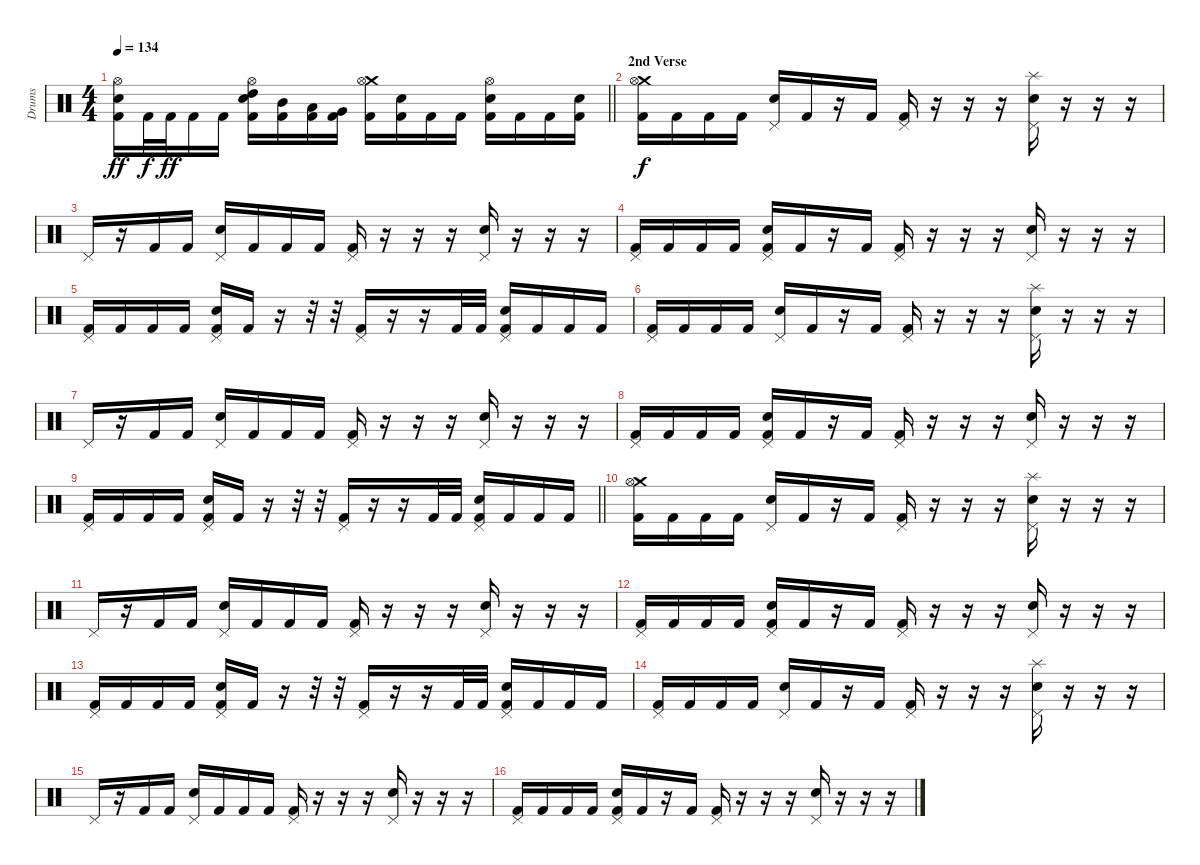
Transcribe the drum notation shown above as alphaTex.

\track ("Drums" "Drums") {instrument percussion}
\staff {score}
\articulation defaults
\ts (4 4)
\tempo 134
\clef neutral
\barLineRight lightlight
\ks c
("Hi-Hat (open)" "Snare (hit) 2" "Kick (hit) 2").16{dy ff} "Kick (hit) 2".32{dy f} "Kick (hit) 2".32{dy ff} "Kick (hit) 2".16 "Kick (hit) 2".16 ("Hi-Hat (open)" "High Tom (hit)" "Snare (hit) 2" "Kick (hit) 2").16 ("Mid Tom (hit)" "Kick (hit) 2").16 ("Low Tom (hit)" "Kick (hit) 2").16 ("Very Low Tom (hit)" "Kick (hit) 2").16 ("Crash medium (hit)" "Hi-Hat (open)" "Kick (hit) 2").16 ("Snare (hit) 2" "Kick (hit) 2").16 "Kick (hit) 2".16 "Kick (hit) 2".16 ("Hi-Hat (open)" "Snare (hit) 2" "Kick (hit) 2").16 "Kick (hit) 2".16 "Kick (hit) 2".16 ("Snare (hit) 2" "Kick (hit) 2").16 |
\section ("" "2nd Verse")
("Crash medium (hit)" "Hi-Hat (open)" "Kick (hit) 2").16{dy f} "Kick (hit) 2".16 "Kick (hit) 2".16 "Kick (hit) 2".16 ("Pedal Hi-Hat (hit)" "Snare (hit) 2").16 "Kick (hit) 2".16 r.16 "Kick (hit) 2".16 ("Pedal Hi-Hat (hit)" "Kick (hit) 2").16 r.16 r.16 r.16 ("Splash (hit)" "Pedal Hi-Hat (hit)" "Snare (hit) 2").16 r.16 r.16 r.16 |
"Pedal Hi-Hat (hit)".16 r.16 "Kick (hit) 2".16 "Kick (hit) 2".16 ("Pedal Hi-Hat (hit)" "Snare (hit) 2").16 "Kick (hit) 2".16 "Kick (hit) 2".16 "Kick (hit) 2".16 ("Pedal Hi-Hat (hit)" "Kick (hit) 2").16 r.16 r.16 r.16 ("Pedal Hi-Hat (hit)" "Snare (hit) 2").16 r.16 r.16 r.16 |
("Pedal Hi-Hat (hit)" "Kick (hit) 2").16 "Kick (hit) 2".16 "Kick (hit) 2".16 "Kick (hit) 2".16 ("Pedal Hi-Hat (hit)" "Snare (hit) 2" "Kick (hit) 2").16 "Kick (hit) 2".16 r.16 "Kick (hit) 2".16 ("Pedal Hi-Hat (hit)" "Kick (hit) 2").16 r.16 r.16 r.16 ("Pedal Hi-Hat (hit)" "Snare (hit) 2").16 r.16 r.16 r.16 |
("Pedal Hi-Hat (hit)" "Kick (hit) 2").16 "Kick (hit) 2".16 "Kick (hit) 2".16 "Kick (hit) 2".16 ("Pedal Hi-Hat (hit)" "Snare (hit) 2" "Kick (hit) 2").16 "Kick (hit) 2".16 r.16 r.32 r.32 ("Pedal Hi-Hat (hit)" "Kick (hit) 2").16 r.16 r.16 "Kick (hit) 2".32 "Kick (hit) 2".32 ("Pedal Hi-Hat (hit)" "Snare (hit) 2" "Kick (hit) 2").16 "Kick (hit) 2".16 "Kick (hit) 2".16 "Kick (hit) 2".16 |
("Pedal Hi-Hat (hit)" "Kick (hit) 2").16 "Kick (hit) 2".16 "Kick (hit) 2".16 "Kick (hit) 2".16 ("Pedal Hi-Hat (hit)" "Snare (hit) 2").16 "Kick (hit) 2".16 r.16 "Kick (hit) 2".16 ("Pedal Hi-Hat (hit)" "Kick (hit) 2").16 r.16 r.16 r.16 ("Splash (hit)" "Pedal Hi-Hat (hit)" "Snare (hit) 2").16 r.16 r.16 r.16 |
"Pedal Hi-Hat (hit)".16 r.16 "Kick (hit) 2".16 "Kick (hit) 2".16 ("Pedal Hi-Hat (hit)" "Snare (hit) 2").16 "Kick (hit) 2".16 "Kick (hit) 2".16 "Kick (hit) 2".16 ("Pedal Hi-Hat (hit)" "Kick (hit) 2").16 r.16 r.16 r.16 ("Pedal Hi-Hat (hit)" "Snare (hit) 2").16 r.16 r.16 r.16 |
("Pedal Hi-Hat (hit)" "Kick (hit) 2").16 "Kick (hit) 2".16 "Kick (hit) 2".16 "Kick (hit) 2".16 ("Pedal Hi-Hat (hit)" "Snare (hit) 2" "Kick (hit) 2").16 "Kick (hit) 2".16 r.16 "Kick (hit) 2".16 ("Pedal Hi-Hat (hit)" "Kick (hit) 2").16 r.16 r.16 r.16 ("Pedal Hi-Hat (hit)" "Snare (hit) 2").16 r.16 r.16 r.16 |
\barLineRight lightlight
("Pedal Hi-Hat (hit)" "Kick (hit) 2").16 "Kick (hit) 2".16 "Kick (hit) 2".16 "Kick (hit) 2".16 ("Pedal Hi-Hat (hit)" "Snare (hit) 2" "Kick (hit) 2").16 "Kick (hit) 2".16 r.16 r.32 r.32 ("Pedal Hi-Hat (hit)" "Kick (hit) 2").16 r.16 r.16 "Kick (hit) 2".32 "Kick (hit) 2".32 ("Pedal Hi-Hat (hit)" "Snare (hit) 2" "Kick (hit) 2").16 "Kick (hit) 2".16 "Kick (hit) 2".16 "Kick (hit) 2".16 |
\section ("" "")
("Crash medium (hit)" "Hi-Hat (open)" "Kick (hit) 2").16 "Kick (hit) 2".16 "Kick (hit) 2".16 "Kick (hit) 2".16 ("Pedal Hi-Hat (hit)" "Snare (hit) 2").16 "Kick (hit) 2".16 r.16 "Kick (hit) 2".16 ("Pedal Hi-Hat (hit)" "Kick (hit) 2").16 r.16 r.16 r.16 ("Splash (hit)" "Pedal Hi-Hat (hit)" "Snare (hit) 2").16 r.16 r.16 r.16 |
"Pedal Hi-Hat (hit)".16 r.16 "Kick (hit) 2".16 "Kick (hit) 2".16 ("Pedal Hi-Hat (hit)" "Snare (hit) 2").16 "Kick (hit) 2".16 "Kick (hit) 2".16 "Kick (hit) 2".16 ("Pedal Hi-Hat (hit)" "Kick (hit) 2").16 r.16 r.16 r.16 ("Pedal Hi-Hat (hit)" "Snare (hit) 2").16 r.16 r.16 r.16 |
("Pedal Hi-Hat (hit)" "Kick (hit) 2").16 "Kick (hit) 2".16 "Kick (hit) 2".16 "Kick (hit) 2".16 ("Pedal Hi-Hat (hit)" "Snare (hit) 2" "Kick (hit) 2").16 "Kick (hit) 2".16 r.16 "Kick (hit) 2".16 ("Pedal Hi-Hat (hit)" "Kick (hit) 2").16 r.16 r.16 r.16 ("Pedal Hi-Hat (hit)" "Snare (hit) 2").16 r.16 r.16 r.16 |
("Pedal Hi-Hat (hit)" "Kick (hit) 2").16 "Kick (hit) 2".16 "Kick (hit) 2".16 "Kick (hit) 2".16 ("Pedal Hi-Hat (hit)" "Snare (hit) 2" "Kick (hit) 2").16 "Kick (hit) 2".16 r.16 r.32 r.32 ("Pedal Hi-Hat (hit)" "Kick (hit) 2").16 r.16 r.16 "Kick (hit) 2".32 "Kick (hit) 2".32 ("Pedal Hi-Hat (hit)" "Snare (hit) 2" "Kick (hit) 2").16 "Kick (hit) 2".16 "Kick (hit) 2".16 "Kick (hit) 2".16 |
("Pedal Hi-Hat (hit)" "Kick (hit) 2").16 "Kick (hit) 2".16 "Kick (hit) 2".16 "Kick (hit) 2".16 ("Pedal Hi-Hat (hit)" "Snare (hit) 2").16 "Kick (hit) 2".16 r.16 "Kick (hit) 2".16 ("Pedal Hi-Hat (hit)" "Kick (hit) 2").16 r.16 r.16 r.16 ("Splash (hit)" "Pedal Hi-Hat (hit)" "Snare (hit) 2").16 r.16 r.16 r.16 |
"Pedal Hi-Hat (hit)".16 r.16 "Kick (hit) 2".16 "Kick (hit) 2".16 ("Pedal Hi-Hat (hit)" "Snare (hit) 2").16 "Kick (hit) 2".16 "Kick (hit) 2".16 "Kick (hit) 2".16 ("Pedal Hi-Hat (hit)" "Kick (hit) 2").16 r.16 r.16 r.16 ("Pedal Hi-Hat (hit)" "Snare (hit) 2").16 r.16 r.16 r.16 |
("Pedal Hi-Hat (hit)" "Kick (hit) 2").16 "Kick (hit) 2".16 "Kick (hit) 2".16 "Kick (hit) 2".16 ("Pedal Hi-Hat (hit)" "Snare (hit) 2" "Kick (hit) 2").16 "Kick (hit) 2".16 r.16 "Kick (hit) 2".16 ("Pedal Hi-Hat (hit)" "Kick (hit) 2").16 r.16 r.16 r.16 ("Pedal Hi-Hat (hit)" "Snare (hit) 2").16 r.16 r.16 r.16
